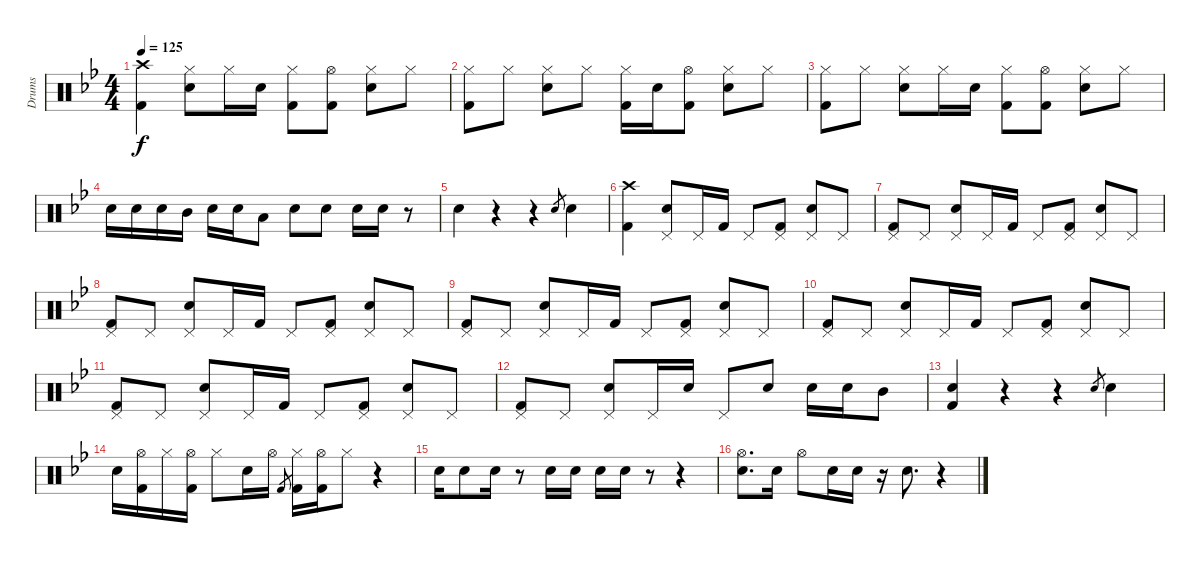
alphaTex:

\track ("Drums" "Drums") {instrument percussion}
\staff {score}
\articulation defaults
\ts (4 4)
\tempo 125
\clef neutral
\ks bb
("Crash high (hit)" "Kick (hit) 2").4{dy f} ("Hi-Hat (closed)" "Electric Snare (hit)").8 "Hi-Hat (closed)".16 "Electric Snare (hit)".16 ("Hi-Hat (closed)" "Kick (hit) 2").8 ("Hi-Hat (open)" "Kick (hit) 2").8 ("Hi-Hat (closed)" "Electric Snare (hit)").8 "Hi-Hat (closed)".8 |
("Hi-Hat (closed)" "Kick (hit) 2").8 "Hi-Hat (closed)".8 ("Hi-Hat (closed)" "Electric Snare (hit)").8 "Hi-Hat (closed)".8 ("Hi-Hat (closed)" "Kick (hit) 2").16 "Electric Snare (hit)".16 ("Hi-Hat (open)" "Kick (hit) 2").8 ("Hi-Hat (closed)" "Electric Snare (hit)").8 "Hi-Hat (closed)".8 |
("Hi-Hat (closed)" "Kick (hit) 2").8 "Hi-Hat (closed)".8 ("Hi-Hat (closed)" "Electric Snare (hit)").8 "Hi-Hat (closed)".16 "Electric Snare (hit)".16 ("Hi-Hat (closed)" "Kick (hit) 2").8 ("Hi-Hat (open)" "Kick (hit) 2").8 ("Hi-Hat (closed)" "Electric Snare (hit)").8 "Hi-Hat (closed)".8 |
"Electric Snare (hit)".16 "Electric Snare (hit)".16 "Electric Snare (hit)".16 "Mid Tom (hit)".16 "Electric Snare (hit)".16 "Electric Snare (hit)".16 "Low Tom (hit)".8 "Electric Snare (hit)".8 "Electric Snare (hit)".8 "Electric Snare (hit)".16 "Electric Snare (hit)".16 r.8 |
"Electric Snare (hit)".4 r.4 r.4 "Electric Snare (hit)".8{gr} "Electric Snare (hit)".4 |
("Crash high (hit)" "Kick (hit) 2").4 ("Pedal Hi-Hat (hit)" "Electric Snare (hit)").8 "Pedal Hi-Hat (hit)".16 "Kick (hit) 2".16 "Pedal Hi-Hat (hit)".8 ("Pedal Hi-Hat (hit)" "Kick (hit) 2").8 ("Pedal Hi-Hat (hit)" "Electric Snare (hit)").8 "Pedal Hi-Hat (hit)".8 |
("Pedal Hi-Hat (hit)" "Kick (hit) 2").8 "Pedal Hi-Hat (hit)".8 ("Pedal Hi-Hat (hit)" "Electric Snare (hit)").8 "Pedal Hi-Hat (hit)".16 "Kick (hit) 2".16 "Pedal Hi-Hat (hit)".8 ("Pedal Hi-Hat (hit)" "Kick (hit) 2").8 ("Pedal Hi-Hat (hit)" "Electric Snare (hit)").8 "Pedal Hi-Hat (hit)".8 |
("Pedal Hi-Hat (hit)" "Kick (hit) 2").8 "Pedal Hi-Hat (hit)".8 ("Pedal Hi-Hat (hit)" "Electric Snare (hit)").8 "Pedal Hi-Hat (hit)".16 "Kick (hit) 2".16 "Pedal Hi-Hat (hit)".8 ("Pedal Hi-Hat (hit)" "Kick (hit) 2").8 ("Pedal Hi-Hat (hit)" "Electric Snare (hit)").8 "Pedal Hi-Hat (hit)".8 |
("Pedal Hi-Hat (hit)" "Kick (hit) 2").8 "Pedal Hi-Hat (hit)".8 ("Pedal Hi-Hat (hit)" "Electric Snare (hit)").8 "Pedal Hi-Hat (hit)".16 "Kick (hit) 2".16 "Pedal Hi-Hat (hit)".8 ("Pedal Hi-Hat (hit)" "Kick (hit) 2").8 ("Pedal Hi-Hat (hit)" "Electric Snare (hit)").8 "Pedal Hi-Hat (hit)".8 |
("Pedal Hi-Hat (hit)" "Kick (hit) 2").8 "Pedal Hi-Hat (hit)".8 ("Pedal Hi-Hat (hit)" "Electric Snare (hit)").8 "Pedal Hi-Hat (hit)".16 "Kick (hit) 2".16 "Pedal Hi-Hat (hit)".8 ("Pedal Hi-Hat (hit)" "Kick (hit) 2").8 ("Pedal Hi-Hat (hit)" "Electric Snare (hit)").8 "Pedal Hi-Hat (hit)".8 |
("Pedal Hi-Hat (hit)" "Kick (hit) 2").8 "Pedal Hi-Hat (hit)".8 ("Pedal Hi-Hat (hit)" "Electric Snare (hit)").8 "Pedal Hi-Hat (hit)".16 "Kick (hit) 2".16 "Pedal Hi-Hat (hit)".8 ("Pedal Hi-Hat (hit)" "Kick (hit) 2").8 ("Pedal Hi-Hat (hit)" "Electric Snare (hit)").8 "Pedal Hi-Hat (hit)".8 |
("Pedal Hi-Hat (hit)" "Kick (hit) 2").8 "Pedal Hi-Hat (hit)".8 ("Pedal Hi-Hat (hit)" "Electric Snare (hit)").8 "Pedal Hi-Hat (hit)".16 "Electric Snare (hit)".16 "Pedal Hi-Hat (hit)".8 "Electric Snare (hit)".8 "Electric Snare (hit)".16 "Electric Snare (hit)".16 "Mid Tom (hit)".8 |
("Electric Snare (hit)" "Kick (hit) 2").4 r.4 r.4 "Electric Snare (hit)".8{gr} "Electric Snare (hit)".4 |
"Electric Snare (hit)".16 ("Hi-Hat (open)" "Kick (hit) 2").16 "Hi-Hat (closed)".16 ("Hi-Hat (open)" "Kick (hit) 2").16 "Hi-Hat (closed)".8 "Electric Snare (hit)".16 "Hi-Hat (open)".16 "Kick (hit) 2".8{gr} ("Hi-Hat (closed)" "Kick (hit) 2").16 ("Hi-Hat (open)" "Kick (hit) 2").16 "Hi-Hat (closed)".8 r.4 |
"Electric Snare (hit)".16 "Electric Snare (hit)".8 "Electric Snare (hit)".16 r.8 "Electric Snare (hit)".16 "Electric Snare (hit)".16 "Electric Snare (hit)".16 "Electric Snare (hit)".16 r.8 r.4 |
("Hi-Hat (open)" "Electric Snare (hit)").8{d} "Electric Snare (hit)".16 "Hi-Hat (open)".8 "Electric Snare (hit)".16 "Electric Snare (hit)".16 r.16 "Electric Snare (hit)".8{d} r.4
